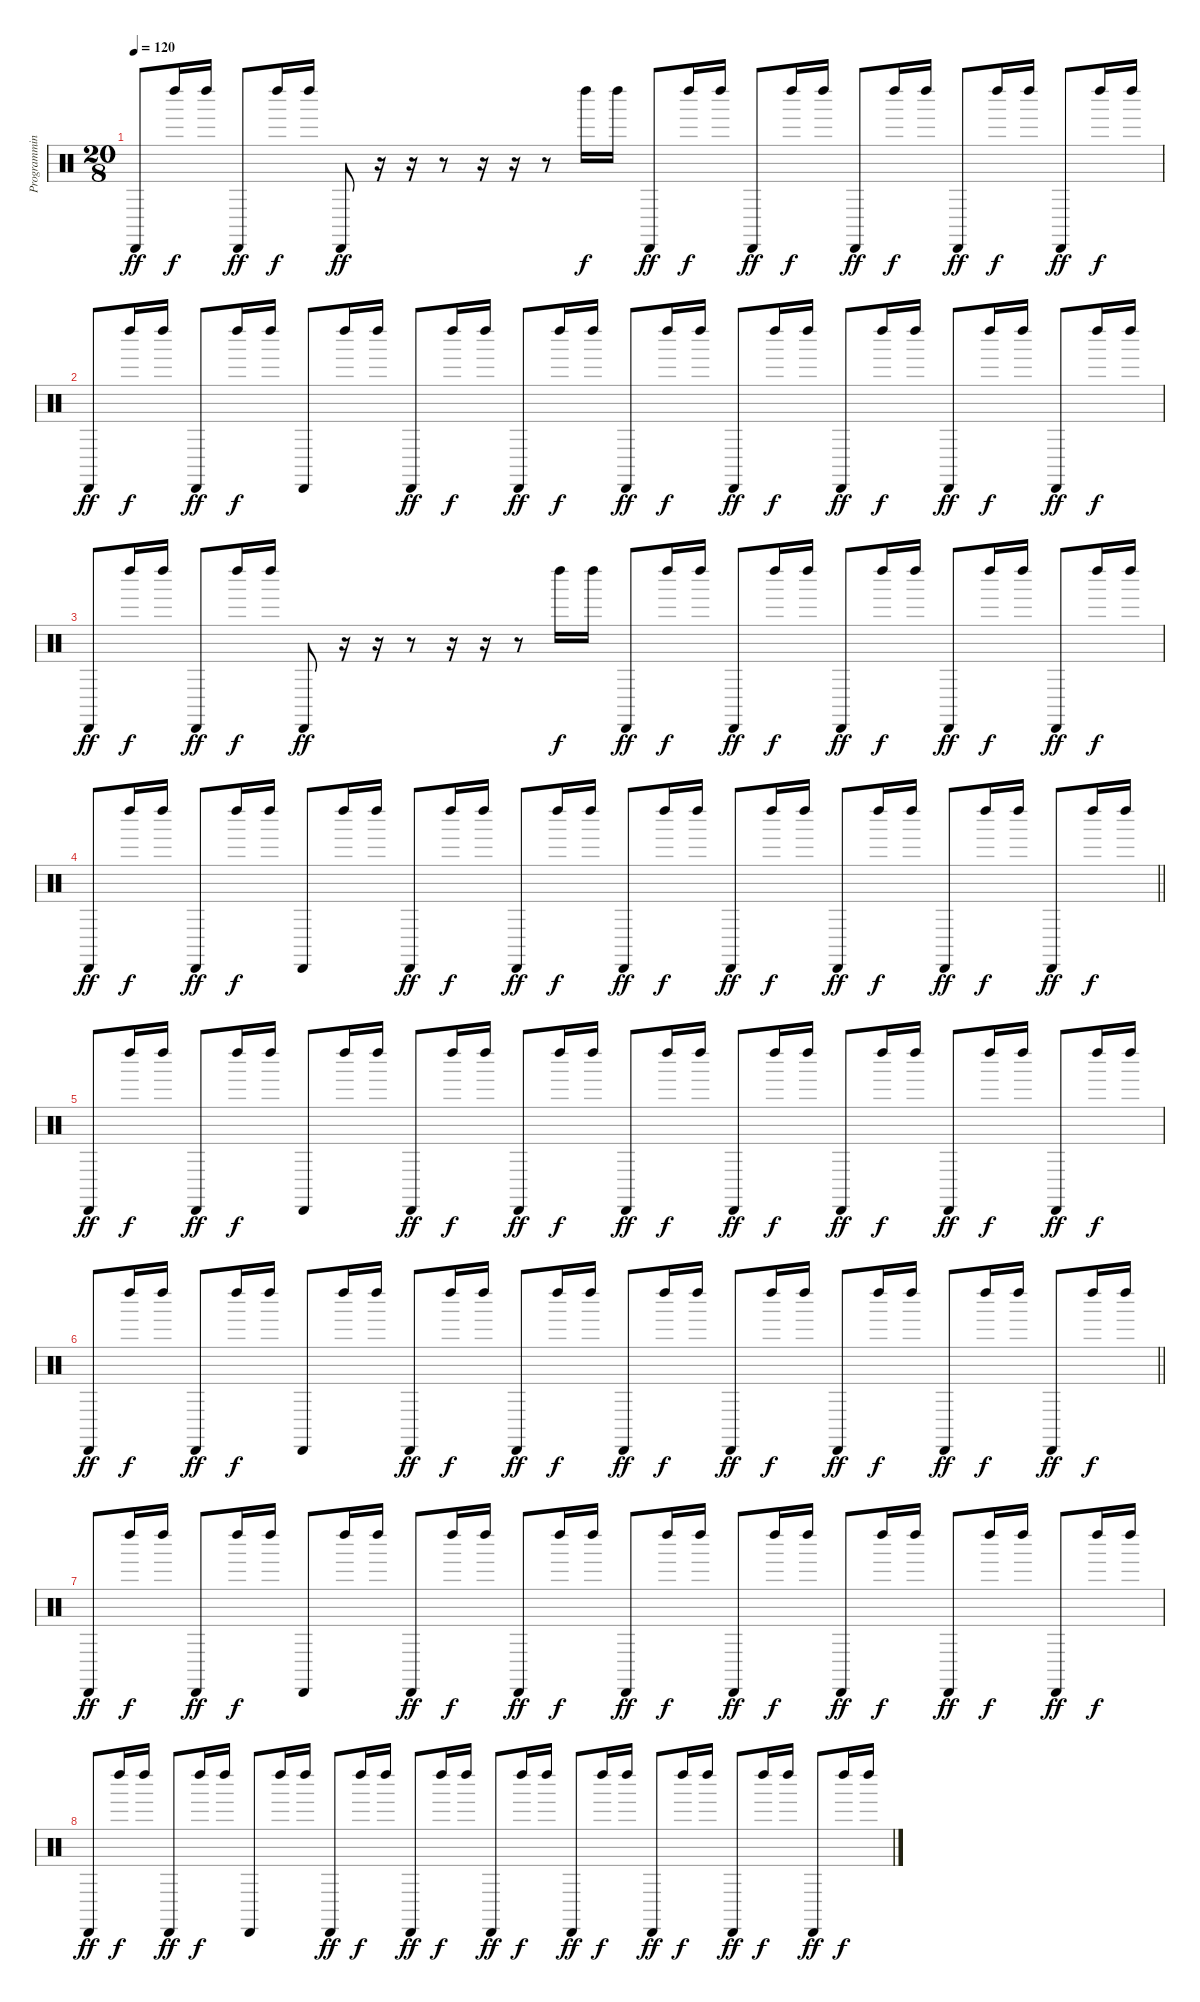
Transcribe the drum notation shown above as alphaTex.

\track ("Programming" "Programmin") {instrument percussion}
\staff {score}
\articulation defaults
\ts (20 8)
\tempo 120
\clef neutral
\ks c "Cabasa (hit)".8{dy ff} "Left Maraca (hit)".16{dy f} "Left Maraca (hit)".16 "Cabasa (hit)".8{dy ff} "Left Maraca (hit)".16{dy f} "Left Maraca (hit)".16 "Cabasa (hit)".8{dy ff}
r.16 r.16 r.8 r.16 r.16 r.8 "Left Maraca (hit)".16{dy f} "Left Maraca (hit)".16 "Cabasa (hit)".8{dy ff} "Left Maraca (hit)".16{dy f} "Left Maraca (hit)".16 "Cabasa (hit)".8{dy ff} "Left Maraca (hit)".16{dy f} "Left Maraca (hit)".16 "Cabasa (hit)".8{dy ff} "Left Maraca (hit)".16{dy f} "Left Maraca (hit)".16 "Cabasa (hit)".8{dy ff} "Left Maraca (hit)".16{dy f} "Left Maraca (hit)".16 "Cabasa (hit)".8{dy ff} "Left Maraca (hit)".16{dy f} "Left Maraca (hit)".16 |
"Cabasa (hit)".8{dy ff} "Left Maraca (hit)".16{dy f} "Left Maraca (hit)".16 "Cabasa (hit)".8{dy ff} "Left Maraca (hit)".16{dy f} "Left Maraca (hit)".16 "Cabasa (hit)".8 "Left Maraca (hit)".16 "Left Maraca (hit)".16 "Cabasa (hit)".8{dy ff} "Left Maraca (hit)".16{dy f} "Left Maraca (hit)".16 "Cabasa (hit)".8{dy ff} "Left Maraca (hit)".16{dy f} "Left Maraca (hit)".16 "Cabasa (hit)".8{dy ff} "Left Maraca (hit)".16{dy f} "Left Maraca (hit)".16 "Cabasa (hit)".8{dy ff} "Left Maraca (hit)".16{dy f} "Left Maraca (hit)".16 "Cabasa (hit)".8{dy ff} "Left Maraca (hit)".16{dy f} "Left Maraca (hit)".16 "Cabasa (hit)".8{dy ff} "Left Maraca (hit)".16{dy f} "Left Maraca (hit)".16 "Cabasa (hit)".8{dy ff} "Left Maraca (hit)".16{dy f} "Left Maraca (hit)".16 |
"Cabasa (hit)".8{dy ff} "Left Maraca (hit)".16{dy f} "Left Maraca (hit)".16 "Cabasa (hit)".8{dy ff} "Left Maraca (hit)".16{dy f} "Left Maraca (hit)".16 "Cabasa (hit)".8{dy ff} r.16 r.16 r.8 r.16 r.16 r.8 "Left Maraca (hit)".16{dy f} "Left Maraca (hit)".16 "Cabasa (hit)".8{dy ff} "Left Maraca (hit)".16{dy f} "Left Maraca (hit)".16 "Cabasa (hit)".8{dy ff} "Left Maraca (hit)".16{dy f} "Left Maraca (hit)".16 "Cabasa (hit)".8{dy ff} "Left Maraca (hit)".16{dy f} "Left Maraca (hit)".16 "Cabasa (hit)".8{dy ff} "Left Maraca (hit)".16{dy f} "Left Maraca (hit)".16 "Cabasa (hit)".8{dy ff} "Left Maraca (hit)".16{dy f} "Left Maraca (hit)".16 |
\barLineRight lightlight "Cabasa (hit)".8{dy ff} "Left Maraca (hit)".16{dy f} "Left Maraca (hit)".16 "Cabasa (hit)".8{dy ff} "Left Maraca (hit)".16{dy f} "Left Maraca (hit)".16 "Cabasa (hit)".8 "Left Maraca (hit)".16 "Left Maraca (hit)".16 "Cabasa (hit)".8{dy ff} "Left Maraca (hit)".16{dy f} "Left Maraca (hit)".16 "Cabasa (hit)".8{dy ff} "Left Maraca (hit)".16{dy f} "Left Maraca (hit)".16 "Cabasa (hit)".8{dy ff} "Left Maraca (hit)".16{dy f} "Left Maraca (hit)".16 "Cabasa (hit)".8{dy ff} "Left Maraca (hit)".16{dy f} "Left Maraca (hit)".16 "Cabasa (hit)".8{dy ff} "Left Maraca (hit)".16{dy f} "Left Maraca (hit)".16 "Cabasa (hit)".8{dy ff} "Left Maraca (hit)".16{dy f} "Left Maraca (hit)".16 "Cabasa (hit)".8{dy ff} "Left Maraca (hit)".16{dy f} "Left Maraca (hit)".16
|
\section ("" "")
"Cabasa (hit)".8{dy ff} "Left Maraca (hit)".16{dy f} "Left Maraca (hit)".16 "Cabasa (hit)".8{dy ff} "Left Maraca (hit)".16{dy f} "Left Maraca (hit)".16 "Cabasa (hit)".8 "Left Maraca (hit)".16 "Left Maraca (hit)".16 "Cabasa (hit)".8{dy ff} "Left Maraca (hit)".16{dy f} "Left Maraca (hit)".16 "Cabasa (hit)".8{dy ff} "Left Maraca (hit)".16{dy f} "Left Maraca (hit)".16 "Cabasa (hit)".8{dy ff} "Left Maraca (hit)".16{dy f} "Left Maraca (hit)".16 "Cabasa (hit)".8{dy ff} "Left Maraca (hit)".16{dy f} "Left Maraca (hit)".16 "Cabasa (hit)".8{dy ff} "Left Maraca (hit)".16{dy f} "Left Maraca (hit)".16 "Cabasa (hit)".8{dy ff} "Left Maraca (hit)".16{dy f} "Left Maraca (hit)".16 "Cabasa (hit)".8{dy ff} "Left Maraca (hit)".16{dy f} "Left Maraca (hit)".16 |
\barLineRight lightlight "Cabasa (hit)".8{dy ff} "Left Maraca (hit)".16{dy f} "Left Maraca (hit)".16 "Cabasa (hit)".8{dy ff} "Left Maraca (hit)".16{dy f} "Left Maraca (hit)".16 "Cabasa (hit)".8 "Left Maraca (hit)".16 "Left Maraca (hit)".16 "Cabasa (hit)".8{dy ff} "Left Maraca (hit)".16{dy f} "Left Maraca (hit)".16 "Cabasa (hit)".8{dy ff} "Left Maraca (hit)".16{dy f} "Left Maraca (hit)".16 "Cabasa (hit)".8{dy ff} "Left Maraca (hit)".16{dy f} "Left Maraca (hit)".16 "Cabasa (hit)".8{dy ff} "Left Maraca (hit)".16{dy f} "Left Maraca (hit)".16 "Cabasa (hit)".8{dy ff} "Left Maraca (hit)".16{dy f} "Left Maraca (hit)".16 "Cabasa (hit)".8{dy ff} "Left Maraca (hit)".16{dy f} "Left Maraca (hit)".16 "Cabasa (hit)".8{dy ff} "Left Maraca (hit)".16{dy f} "Left Maraca (hit)".16
|
\section ("" "")
"Cabasa (hit)".8{dy ff} "Left Maraca (hit)".16{dy f} "Left Maraca (hit)".16 "Cabasa (hit)".8{dy ff} "Left Maraca (hit)".16{dy f} "Left Maraca (hit)".16 "Cabasa (hit)".8 "Left Maraca (hit)".16 "Left Maraca (hit)".16 "Cabasa (hit)".8{dy ff} "Left Maraca (hit)".16{dy f} "Left Maraca (hit)".16 "Cabasa (hit)".8{dy ff} "Left Maraca (hit)".16{dy f} "Left Maraca (hit)".16 "Cabasa (hit)".8{dy ff} "Left Maraca (hit)".16{dy f} "Left Maraca (hit)".16 "Cabasa (hit)".8{dy ff} "Left Maraca (hit)".16{dy f} "Left Maraca (hit)".16 "Cabasa (hit)".8{dy ff} "Left Maraca (hit)".16{dy f} "Left Maraca (hit)".16 "Cabasa (hit)".8{dy ff} "Left Maraca (hit)".16{dy f} "Left Maraca (hit)".16 "Cabasa (hit)".8{dy ff} "Left Maraca (hit)".16{dy f} "Left Maraca (hit)".16 |
"Cabasa (hit)".8{dy ff} "Left Maraca (hit)".16{dy f} "Left Maraca (hit)".16 "Cabasa (hit)".8{dy ff} "Left Maraca (hit)".16{dy f} "Left Maraca (hit)".16 "Cabasa (hit)".8 "Left Maraca (hit)".16 "Left Maraca (hit)".16 "Cabasa (hit)".8{dy ff} "Left Maraca (hit)".16{dy f} "Left Maraca (hit)".16 "Cabasa (hit)".8{dy ff} "Left Maraca (hit)".16{dy f} "Left Maraca (hit)".16 "Cabasa (hit)".8{dy ff} "Left Maraca (hit)".16{dy f} "Left Maraca (hit)".16 "Cabasa (hit)".8{dy ff} "Left Maraca (hit)".16{dy f} "Left Maraca (hit)".16 "Cabasa (hit)".8{dy ff} "Left Maraca (hit)".16{dy f} "Left Maraca (hit)".16 "Cabasa (hit)".8{dy ff} "Left Maraca (hit)".16{dy f} "Left Maraca (hit)".16 "Cabasa (hit)".8{dy ff} "Left Maraca (hit)".16{dy f} "Left Maraca (hit)".16
